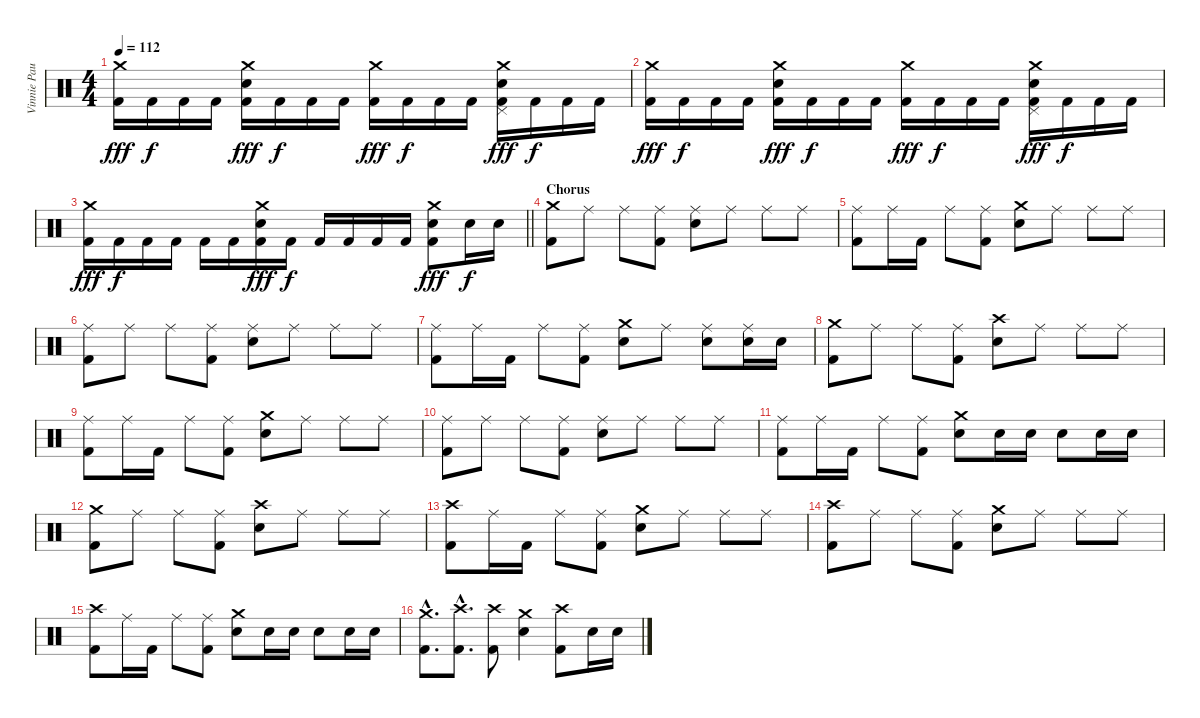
\track ("Vinnie Paul" "Vinnie Pau") {instrument percussion}
\staff {score}
\articulation defaults
\ts (4 4)
\tempo 112
\clef neutral
\ks c
("Crash medium (hit)" "Kick (hit) 2").16{dy fff} "Kick (hit) 2".16{dy f} "Kick (hit) 2".16 "Kick (hit) 2".16 ("Crash medium (hit)" "Electric Snare (hit)" "Kick (hit) 2").16{dy fff} "Kick (hit) 2".16{dy f} "Kick (hit) 2".16 "Kick (hit) 2".16 ("Crash medium (hit)" "Kick (hit) 2").16{dy fff} "Kick (hit) 2".16{dy f} "Kick (hit) 2".16 "Kick (hit) 2".16 ("Crash medium (hit)" "Pedal Hi-Hat (hit)" "Electric Snare (hit)" "Kick (hit) 2").16{dy fff} "Kick (hit) 2".16{dy f} "Kick (hit) 2".16 "Kick (hit) 2".16 |
("Crash medium (hit)" "Kick (hit) 2").16{dy fff} "Kick (hit) 2".16{dy f} "Kick (hit) 2".16 "Kick (hit) 2".16 ("Crash medium (hit)" "Electric Snare (hit)" "Kick (hit) 2").16{dy fff} "Kick (hit) 2".16{dy f} "Kick (hit) 2".16 "Kick (hit) 2".16 ("Crash medium (hit)" "Kick (hit) 2").16{dy fff} "Kick (hit) 2".16{dy f} "Kick (hit) 2".16 "Kick (hit) 2".16 ("Crash medium (hit)" "Pedal Hi-Hat (hit)" "Electric Snare (hit)" "Kick (hit) 2").16{dy fff} "Kick (hit) 2".16{dy f} "Kick (hit) 2".16 "Kick (hit) 2".16 |
\barLineRight lightlight
("Crash medium (hit)" "Kick (hit) 2").16{dy fff} "Kick (hit) 2".16{dy f} "Kick (hit) 2".16 "Kick (hit) 2".16 "Kick (hit) 2".16 "Kick (hit) 2".16 ("Crash medium (hit)" "Electric Snare (hit)" "Kick (hit) 2").16{dy fff} "Kick (hit) 2".16{dy f} "Kick (hit) 2".16 "Kick (hit) 2".16 "Kick (hit) 2".16 "Kick (hit) 2".16 ("Crash medium (hit)" "Electric Snare (hit)" "Kick (hit) 2").8{dy fff} "Electric Snare (hit)".16{dy f} "Electric Snare (hit)".16 |
\section ("" "Chorus")
("Crash medium (hit)" "Kick (hit) 2").8 "Ride (middle)".8 "Ride (middle)".8 ("Ride (middle)" "Kick (hit) 2").8 ("Ride (middle)" "Electric Snare (hit)").8 "Ride (middle)".8 "Ride (middle)".8 "Ride (middle)".8 |
("Ride (middle)" "Kick (hit) 2").8 "Ride (middle)".16 "Kick (hit) 2".16 "Ride (middle)".8 ("Ride (middle)" "Kick (hit) 2").8 ("Crash medium (hit)" "Electric Snare (hit)").8 "Ride (middle)".8 "Ride (middle)".8 "Ride (middle)".8 |
("Ride (middle)" "Kick (hit) 2").8 "Ride (middle)".8 "Ride (middle)".8 ("Ride (middle)" "Kick (hit) 2").8 ("Ride (middle)" "Electric Snare (hit)").8 "Ride (middle)".8 "Ride (middle)".8 "Ride (middle)".8 |
("Ride (middle)" "Kick (hit) 2").8 "Ride (middle)".16 "Kick (hit) 2".16 "Ride (middle)".8 ("Ride (middle)" "Kick (hit) 2").8 ("Crash medium (hit)" "Electric Snare (hit)").8 "Ride (middle)".8 ("Ride (middle)" "Electric Snare (hit)").8 ("Ride (middle)" "Electric Snare (hit)").16 "Electric Snare (hit)".16 |
("Crash medium (hit)" "Kick (hit) 2").8 "Ride (middle)".8 "Ride (middle)".8 ("Ride (middle)" "Kick (hit) 2").8 ("Crash high (hit)" "Electric Snare (hit)").8 "Ride (middle)".8 "Ride (middle)".8 "Ride (middle)".8 |
("Ride (middle)" "Kick (hit) 2").8 "Ride (middle)".16 "Kick (hit) 2".16 "Ride (middle)".8 ("Ride (middle)" "Kick (hit) 2").8 ("Crash medium (hit)" "Electric Snare (hit)").8 "Ride (middle)".8 "Ride (middle)".8 "Ride (middle)".8 |
("Ride (middle)" "Kick (hit) 2").8 "Ride (middle)".8 "Ride (middle)".8 ("Ride (middle)" "Kick (hit) 2").8 ("Ride (middle)" "Electric Snare (hit)").8 "Ride (middle)".8 "Ride (middle)".8 "Ride (middle)".8 |
("Ride (middle)" "Kick (hit) 2").8 "Ride (middle)".16 "Kick (hit) 2".16 "Ride (middle)".8 ("Ride (middle)" "Kick (hit) 2").8 ("Crash medium (hit)" "Electric Snare (hit)").8 "Electric Snare (hit)".16 "Electric Snare (hit)".16 "Electric Snare (hit)".8 "Electric Snare (hit)".16 "Electric Snare (hit)".16 |
("Crash medium (hit)" "Kick (hit) 2").8 "Ride (middle)".8 "Ride (middle)".8 ("Ride (middle)" "Kick (hit) 2").8 ("Crash high (hit)" "Electric Snare (hit)").8 "Ride (middle)".8 "Ride (middle)".8 "Ride (middle)".8 |
("Crash high (hit)" "Kick (hit) 2").8 "Ride (middle)".16 "Kick (hit) 2".16 "Ride (middle)".8 ("Ride (middle)" "Kick (hit) 2").8 ("Crash medium (hit)" "Electric Snare (hit)").8 "Ride (middle)".8 "Ride (middle)".8 "Ride (middle)".8 |
("Crash high (hit)" "Kick (hit) 2").8 "Ride (middle)".8 "Ride (middle)".8 ("Ride (middle)" "Kick (hit) 2").8 ("Crash medium (hit)" "Electric Snare (hit)").8 "Ride (middle)".8 "Ride (middle)".8 "Ride (middle)".8 |
("Crash high (hit)" "Kick (hit) 2").8 "Ride (middle)".16 "Kick (hit) 2".16 "Ride (middle)".8 ("Ride (middle)" "Kick (hit) 2").8 ("Crash medium (hit)" "Electric Snare (hit)").8 "Electric Snare (hit)".16 "Electric Snare (hit)".16 "Electric Snare (hit)".8 "Electric Snare (hit)".16 "Electric Snare (hit)".16 |
("Crash medium (hit)"{hac} "Kick (hit) 2"{hac}).8{d} ("Crash high (hit)"{hac} "Kick (hit) 2"{hac}).8{d} ("Crash high (hit)" "Kick (hit) 2").8 ("Crash medium (hit)" "Electric Snare (hit)").4 ("Crash high (hit)" "Kick (hit) 2").8 "Electric Snare (hit)".16 "Electric Snare (hit)".16
